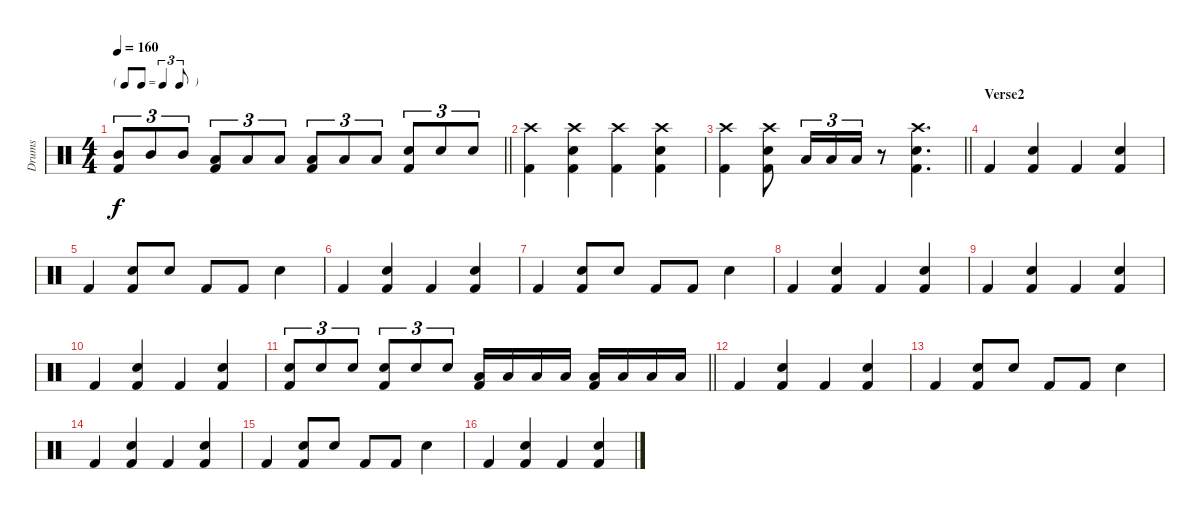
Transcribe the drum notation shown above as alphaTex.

\track ("Drums" "Drums") {instrument percussion}
\staff {score}
\articulation defaults
\ts (4 4)
\tf triplet8th
\tempo 160
\clef neutral
\barLineRight lightlight
\ks c
("Mid Tom (hit)" "Kick (hit) 2").8{tu (3 2) dy f} "Mid Tom (hit)".8{tu (3 2)} "Mid Tom (hit)".8{tu (3 2)} ("Low Tom (hit)" "Kick (hit) 2").8{tu (3 2)} "Low Tom (hit)".8{tu (3 2)} "Low Tom (hit)".8{tu (3 2)} ("Low Floor Tom (hit)" "Kick (hit) 2").8{tu (3 2)} "Low Floor Tom (hit)".8{tu (3 2)} "Low Floor Tom (hit)".8{tu (3 2)} ("Snare (hit) 2" "Kick (hit) 2").8{tu (3 2)} "Snare (hit) 2".8{tu (3 2)} "Snare (hit) 2".8{tu (3 2)} |
("Crash high (hit)" "Kick (hit) 2").4 ("Crash high (hit)" "Snare (hit) 2" "Kick (hit) 2").4 ("Crash high (hit)" "Kick (hit) 2").4 ("Crash high (hit)" "Snare (hit) 2" "Kick (hit) 2").4 |
\barLineRight lightlight
("Crash high (hit)" "Kick (hit) 2").4 ("Crash high (hit)" "Snare (hit) 2" "Kick (hit) 2").8 "Low Tom (hit)".16{tu (3 2)} "Low Tom (hit)".16{tu (3 2)} "Low Tom (hit)".16{tu (3 2)} r.8 ("Crash high (hit)" "Snare (hit) 2" "Kick (hit) 2").4{d} |
\section ("" "Verse2")
"Kick (hit) 2".4 ("Snare (hit) 2" "Kick (hit) 2").4 "Kick (hit) 2".4 ("Snare (hit) 2" "Kick (hit) 2").4 |
"Kick (hit) 2".4 ("Snare (hit) 2" "Kick (hit) 2").8 "Snare (hit) 2".8 "Kick (hit) 2".8 "Kick (hit) 2".8 "Snare (hit) 2".4 |
"Kick (hit) 2".4 ("Snare (hit) 2" "Kick (hit) 2").4 "Kick (hit) 2".4 ("Snare (hit) 2" "Kick (hit) 2").4 |
"Kick (hit) 2".4 ("Snare (hit) 2" "Kick (hit) 2").8 "Snare (hit) 2".8 "Kick (hit) 2".8 "Kick (hit) 2".8 "Snare (hit) 2".4 |
"Kick (hit) 2".4 ("Snare (hit) 2" "Kick (hit) 2").4 "Kick (hit) 2".4 ("Snare (hit) 2" "Kick (hit) 2").4 |
"Kick (hit) 2".4 ("Snare (hit) 2" "Kick (hit) 2").4 "Kick (hit) 2".4 ("Snare (hit) 2" "Kick (hit) 2").4 |
"Kick (hit) 2".4 ("Snare (hit) 2" "Kick (hit) 2").4 "Kick (hit) 2".4 ("Snare (hit) 2" "Kick (hit) 2").4 |
\barLineRight lightlight
("Electric Snare (hit)" "Kick (hit) 2").8{tu (3 2)} "Electric Snare (hit)".8{tu (3 2)} "Electric Snare (hit)".8{tu (3 2)} ("Electric Snare (hit)" "Kick (hit) 2").8{tu (3 2)} "Electric Snare (hit)".8{tu (3 2)} "Electric Snare (hit)".8{tu (3 2)} ("Low Tom (hit)" "Kick (hit) 2").16 "Low Tom (hit)".16 "Low Tom (hit)".16 "Low Tom (hit)".16 ("Low Tom (hit)" "Kick (hit) 2").16 "Low Tom (hit)".16 "Low Tom (hit)".16 "Low Tom (hit)".16 |
"Kick (hit) 2".4 ("Snare (hit) 2" "Kick (hit) 2").4 "Kick (hit) 2".4 ("Snare (hit) 2" "Kick (hit) 2").4 |
"Kick (hit) 2".4 ("Snare (hit) 2" "Kick (hit) 2").8 "Snare (hit) 2".8 "Kick (hit) 2".8 "Kick (hit) 2".8 "Snare (hit) 2".4 |
"Kick (hit) 2".4 ("Snare (hit) 2" "Kick (hit) 2").4 "Kick (hit) 2".4 ("Snare (hit) 2" "Kick (hit) 2").4 |
"Kick (hit) 2".4 ("Snare (hit) 2" "Kick (hit) 2").8 "Snare (hit) 2".8 "Kick (hit) 2".8 "Kick (hit) 2".8 "Snare (hit) 2".4 |
"Kick (hit) 2".4 ("Snare (hit) 2" "Kick (hit) 2").4 "Kick (hit) 2".4 ("Snare (hit) 2" "Kick (hit) 2").4
